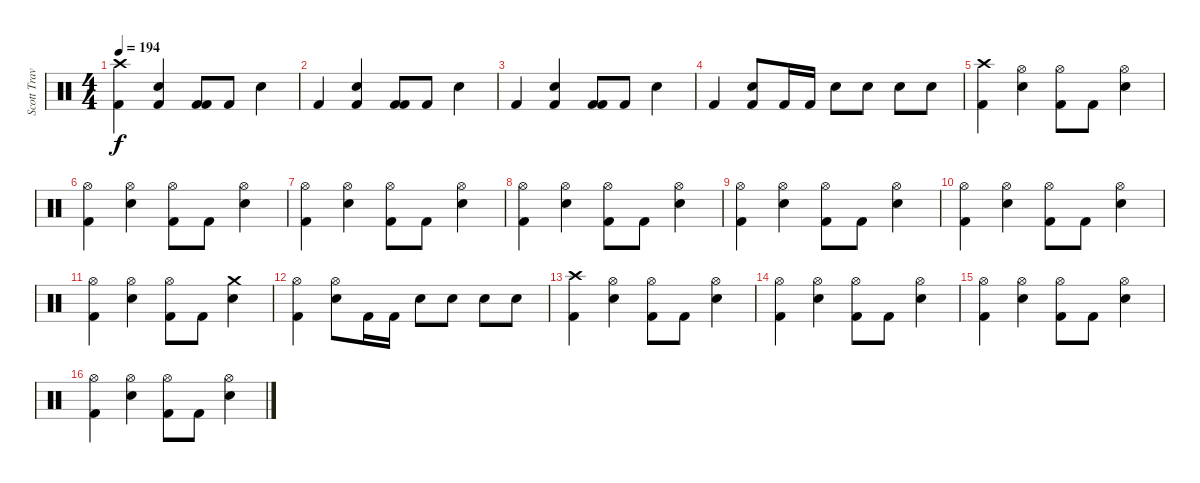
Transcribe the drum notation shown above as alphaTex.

\track ("Scott Travis" "Scott Trav") {instrument percussion}
\staff {score}
\articulation defaults
\ts (4 4)
\tempo 194
\clef neutral
\ks c
("Kick (hit) 2" "Crash high (hit)").4{dy f} ("Kick (hit) 2" "Snare (hit) 2").4 ("Kick (hit) 2" "Kick (hit) 2").8 "Kick (hit) 2".8 "Snare (hit) 2".4 |
"Kick (hit) 2".4 ("Kick (hit) 2" "Snare (hit) 2").4 ("Kick (hit) 2" "Kick (hit) 2").8 "Kick (hit) 2".8 "Snare (hit) 2".4 |
"Kick (hit) 2".4 ("Kick (hit) 2" "Snare (hit) 2").4 ("Kick (hit) 2" "Kick (hit) 2").8 "Kick (hit) 2".8 "Snare (hit) 2".4 |
"Kick (hit) 2".4 ("Kick (hit) 2" "Snare (hit) 2").8 "Kick (hit) 2".16 "Kick (hit) 2".16 "Snare (hit) 2".8 "Snare (hit) 2".8 "Snare (hit) 2".8 "Snare (hit) 2".8 |
("Kick (hit) 2" "Crash high (hit)").4 ("Hi-Hat (open)" "Snare (hit) 2").4 ("Hi-Hat (open)" "Kick (hit) 2").8 "Kick (hit) 2".8 ("Snare (hit) 2" "Hi-Hat (open)").4 |
("Kick (hit) 2" "Hi-Hat (open)").4 ("Hi-Hat (open)" "Snare (hit) 2").4 ("Hi-Hat (open)" "Kick (hit) 2").8 "Kick (hit) 2".8 ("Snare (hit) 2" "Hi-Hat (open)").4 |
("Kick (hit) 2" "Hi-Hat (open)").4 ("Hi-Hat (open)" "Snare (hit) 2").4 ("Hi-Hat (open)" "Kick (hit) 2").8 "Kick (hit) 2".8 ("Snare (hit) 2" "Hi-Hat (open)").4 |
("Kick (hit) 2" "Hi-Hat (open)").4 ("Hi-Hat (open)" "Snare (hit) 2").4 ("Hi-Hat (open)" "Kick (hit) 2").8 "Kick (hit) 2".8 ("Snare (hit) 2" "Hi-Hat (open)").4 |
("Kick (hit) 2" "Hi-Hat (open)").4 ("Hi-Hat (open)" "Snare (hit) 2").4 ("Hi-Hat (open)" "Kick (hit) 2").8 "Kick (hit) 2".8 ("Snare (hit) 2" "Hi-Hat (open)").4 |
("Kick (hit) 2" "Hi-Hat (open)").4 ("Hi-Hat (open)" "Snare (hit) 2").4 ("Hi-Hat (open)" "Kick (hit) 2").8 "Kick (hit) 2".8 ("Snare (hit) 2" "Hi-Hat (open)").4 |
("Kick (hit) 2" "Hi-Hat (open)").4 ("Hi-Hat (open)" "Snare (hit) 2").4 ("Hi-Hat (open)" "Kick (hit) 2").8 "Kick (hit) 2".8 ("Snare (hit) 2" "Crash medium (hit)").4 |
("Kick (hit) 2" "Hi-Hat (open)").4 ("Hi-Hat (open)" "Snare (hit) 2").8 "Kick (hit) 2".16 "Kick (hit) 2".16 "Snare (hit) 2".8 "Snare (hit) 2".8 "Snare (hit) 2".8 "Snare (hit) 2".8 |
("Kick (hit) 2" "Crash high (hit)").4 ("Hi-Hat (open)" "Snare (hit) 2").4 ("Hi-Hat (open)" "Kick (hit) 2").8 "Kick (hit) 2".8 ("Snare (hit) 2" "Hi-Hat (open)").4 |
("Kick (hit) 2" "Hi-Hat (open)").4 ("Hi-Hat (open)" "Snare (hit) 2").4 ("Hi-Hat (open)" "Kick (hit) 2").8 "Kick (hit) 2".8 ("Snare (hit) 2" "Hi-Hat (open)").4 |
("Kick (hit) 2" "Hi-Hat (open)").4 ("Hi-Hat (open)" "Snare (hit) 2").4 ("Hi-Hat (open)" "Kick (hit) 2").8 "Kick (hit) 2".8 ("Snare (hit) 2" "Hi-Hat (open)").4 |
("Kick (hit) 2" "Hi-Hat (open)").4 ("Hi-Hat (open)" "Snare (hit) 2").4 ("Hi-Hat (open)" "Kick (hit) 2").8 "Kick (hit) 2".8 ("Snare (hit) 2" "Hi-Hat (open)").4
